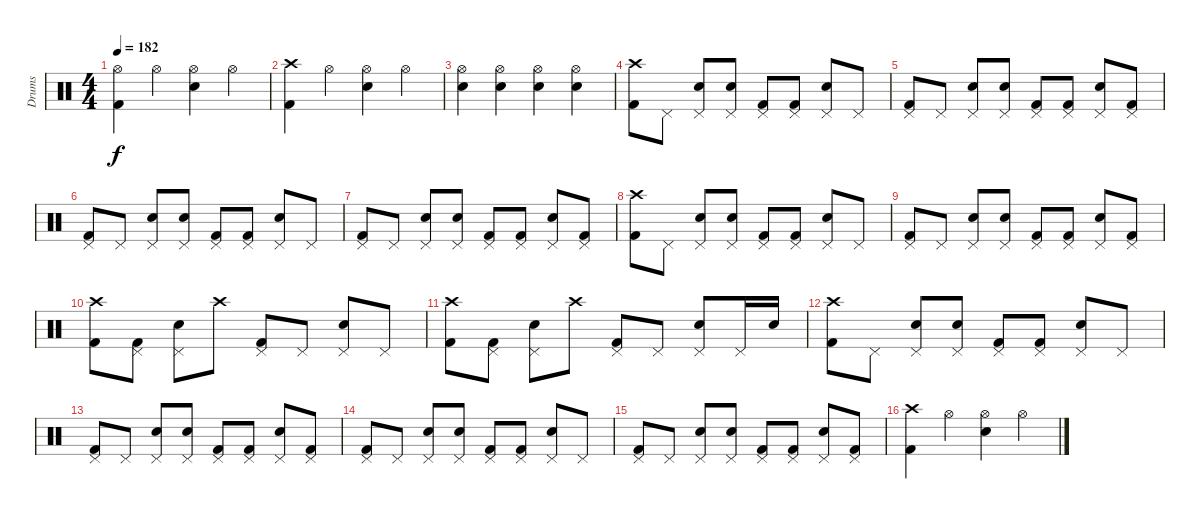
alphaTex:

\track ("Drums" "Drums") {instrument percussion}
\staff {score}
\articulation defaults
\ts (4 4)
\tempo 182
\clef neutral
\ks c
("Hi-Hat (open)" "Kick (hit) 2").4{dy f} "Hi-Hat (open)".4 ("Hi-Hat (open)" "Electric Snare (hit)").4 "Hi-Hat (open)".4 |
("Crash high (hit)" "Kick (hit) 2").4 "Hi-Hat (open)".4 ("Hi-Hat (open)" "Electric Snare (hit)").4 "Hi-Hat (open)".4 |
("Hi-Hat (open)" "Electric Snare (hit)").4 ("Hi-Hat (open)" "Electric Snare (hit)").4 ("Hi-Hat (open)" "Electric Snare (hit)").4 ("Hi-Hat (open)" "Electric Snare (hit)").4 |
("Crash high (hit)" "Kick (hit) 2").8 "Pedal Hi-Hat (hit)".8 ("Pedal Hi-Hat (hit)" "Electric Snare (hit)").8 ("Pedal Hi-Hat (hit)" "Electric Snare (hit)").8 ("Pedal Hi-Hat (hit)" "Kick (hit) 2").8 ("Pedal Hi-Hat (hit)" "Kick (hit) 2").8 ("Pedal Hi-Hat (hit)" "Electric Snare (hit)").8 "Pedal Hi-Hat (hit)".8 |
("Pedal Hi-Hat (hit)" "Kick (hit) 2").8 "Pedal Hi-Hat (hit)".8 ("Pedal Hi-Hat (hit)" "Electric Snare (hit)").8 ("Pedal Hi-Hat (hit)" "Electric Snare (hit)").8 ("Pedal Hi-Hat (hit)" "Kick (hit) 2").8 ("Pedal Hi-Hat (hit)" "Kick (hit) 2").8 ("Pedal Hi-Hat (hit)" "Electric Snare (hit)").8 ("Pedal Hi-Hat (hit)" "Kick (hit) 2").8 |
("Pedal Hi-Hat (hit)" "Kick (hit) 2").8 "Pedal Hi-Hat (hit)".8 ("Pedal Hi-Hat (hit)" "Electric Snare (hit)").8 ("Pedal Hi-Hat (hit)" "Electric Snare (hit)").8 ("Pedal Hi-Hat (hit)" "Kick (hit) 2").8 ("Pedal Hi-Hat (hit)" "Kick (hit) 2").8 ("Pedal Hi-Hat (hit)" "Electric Snare (hit)").8 "Pedal Hi-Hat (hit)".8 |
("Pedal Hi-Hat (hit)" "Kick (hit) 2").8 "Pedal Hi-Hat (hit)".8 ("Pedal Hi-Hat (hit)" "Electric Snare (hit)").8 ("Pedal Hi-Hat (hit)" "Electric Snare (hit)").8 ("Pedal Hi-Hat (hit)" "Kick (hit) 2").8 ("Pedal Hi-Hat (hit)" "Kick (hit) 2").8 ("Pedal Hi-Hat (hit)" "Electric Snare (hit)").8 ("Pedal Hi-Hat (hit)" "Kick (hit) 2").8 |
("Crash high (hit)" "Kick (hit) 2").8 "Pedal Hi-Hat (hit)".8 ("Pedal Hi-Hat (hit)" "Electric Snare (hit)").8 ("Pedal Hi-Hat (hit)" "Electric Snare (hit)").8 ("Pedal Hi-Hat (hit)" "Kick (hit) 2").8 ("Pedal Hi-Hat (hit)" "Kick (hit) 2").8 ("Pedal Hi-Hat (hit)" "Electric Snare (hit)").8 "Pedal Hi-Hat (hit)".8 |
("Pedal Hi-Hat (hit)" "Kick (hit) 2").8 "Pedal Hi-Hat (hit)".8 ("Pedal Hi-Hat (hit)" "Electric Snare (hit)").8 ("Pedal Hi-Hat (hit)" "Electric Snare (hit)").8 ("Pedal Hi-Hat (hit)" "Kick (hit) 2").8 ("Pedal Hi-Hat (hit)" "Kick (hit) 2").8 ("Pedal Hi-Hat (hit)" "Electric Snare (hit)").8 ("Pedal Hi-Hat (hit)" "Kick (hit) 2").8 |
("Crash high (hit)" "Kick (hit) 2").8 ("Pedal Hi-Hat (hit)" "Kick (hit) 2").8 ("Pedal Hi-Hat (hit)" "Electric Snare (hit)").8 "Crash high (hit)".8 ("Pedal Hi-Hat (hit)" "Kick (hit) 2").8 "Pedal Hi-Hat (hit)".8 ("Pedal Hi-Hat (hit)" "Electric Snare (hit)").8 "Pedal Hi-Hat (hit)".8 |
("Crash high (hit)" "Kick (hit) 2").8 ("Pedal Hi-Hat (hit)" "Kick (hit) 2").8 ("Pedal Hi-Hat (hit)" "Electric Snare (hit)").8 "Crash high (hit)".8 ("Pedal Hi-Hat (hit)" "Kick (hit) 2").8 "Pedal Hi-Hat (hit)".8 ("Pedal Hi-Hat (hit)" "Electric Snare (hit)").8 "Pedal Hi-Hat (hit)".16 "Electric Snare (hit)".16 |
("Crash high (hit)" "Kick (hit) 2").8 "Pedal Hi-Hat (hit)".8 ("Pedal Hi-Hat (hit)" "Electric Snare (hit)").8 ("Pedal Hi-Hat (hit)" "Electric Snare (hit)").8 ("Pedal Hi-Hat (hit)" "Kick (hit) 2").8 ("Pedal Hi-Hat (hit)" "Kick (hit) 2").8 ("Pedal Hi-Hat (hit)" "Electric Snare (hit)").8 "Pedal Hi-Hat (hit)".8 |
("Pedal Hi-Hat (hit)" "Kick (hit) 2").8 "Pedal Hi-Hat (hit)".8 ("Pedal Hi-Hat (hit)" "Electric Snare (hit)").8 ("Pedal Hi-Hat (hit)" "Electric Snare (hit)").8 ("Pedal Hi-Hat (hit)" "Kick (hit) 2").8 ("Pedal Hi-Hat (hit)" "Kick (hit) 2").8 ("Pedal Hi-Hat (hit)" "Electric Snare (hit)").8 ("Pedal Hi-Hat (hit)" "Kick (hit) 2").8 |
("Pedal Hi-Hat (hit)" "Kick (hit) 2").8 "Pedal Hi-Hat (hit)".8 ("Pedal Hi-Hat (hit)" "Electric Snare (hit)").8 ("Pedal Hi-Hat (hit)" "Electric Snare (hit)").8 ("Pedal Hi-Hat (hit)" "Kick (hit) 2").8 ("Pedal Hi-Hat (hit)" "Kick (hit) 2").8 ("Pedal Hi-Hat (hit)" "Electric Snare (hit)").8 "Pedal Hi-Hat (hit)".8 |
("Pedal Hi-Hat (hit)" "Kick (hit) 2").8 "Pedal Hi-Hat (hit)".8 ("Pedal Hi-Hat (hit)" "Electric Snare (hit)").8 ("Pedal Hi-Hat (hit)" "Electric Snare (hit)").8 ("Pedal Hi-Hat (hit)" "Kick (hit) 2").8 ("Pedal Hi-Hat (hit)" "Kick (hit) 2").8 ("Pedal Hi-Hat (hit)" "Electric Snare (hit)").8 ("Pedal Hi-Hat (hit)" "Kick (hit) 2").8 |
("Crash high (hit)" "Kick (hit) 2").4 "Hi-Hat (open)".4 ("Hi-Hat (open)" "Electric Snare (hit)").4 "Hi-Hat (open)".4
